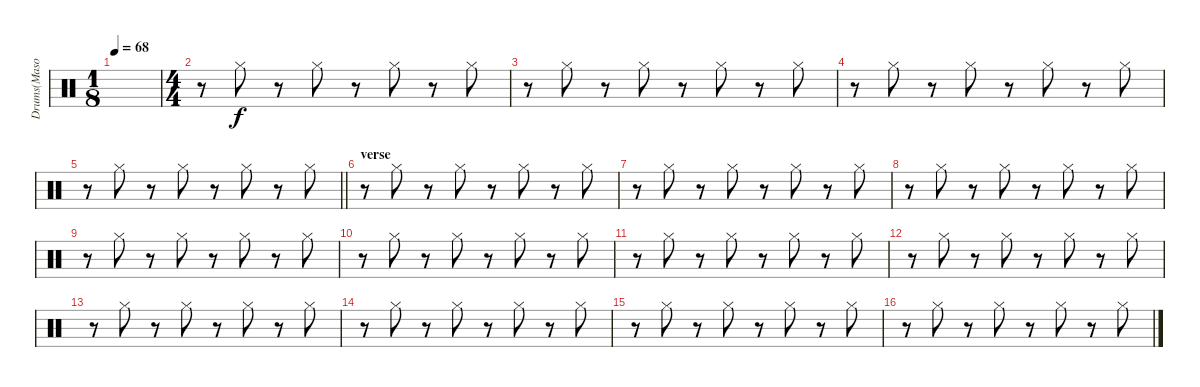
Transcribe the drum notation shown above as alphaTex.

\track ("Drums(Mason)" "Drums(Maso") {instrument percussion}
\staff {score}
\articulation defaults
\ts (1 8)
\tempo 68
\clef neutral
\ks c
|
\ts (4 4)
r.8 "Hi-Hat (closed)".8 r.8 "Hi-Hat (closed)".8 r.8 "Hi-Hat (closed)".8 r.8 "Hi-Hat (closed)".8 |
r.8 "Hi-Hat (closed)".8 r.8 "Hi-Hat (closed)".8 r.8 "Hi-Hat (closed)".8 r.8 "Hi-Hat (closed)".8 |
r.8 "Hi-Hat (closed)".8 r.8 "Hi-Hat (closed)".8 r.8 "Hi-Hat (closed)".8 r.8 "Hi-Hat (closed)".8 |
\barLineRight lightlight
r.8 "Hi-Hat (closed)".8 r.8 "Hi-Hat (closed)".8 r.8 "Hi-Hat (closed)".8 r.8 "Hi-Hat (closed)".8 |
\section ("" "verse")
r.8 "Hi-Hat (closed)".8 r.8 "Hi-Hat (closed)".8 r.8 "Hi-Hat (closed)".8 r.8 "Hi-Hat (closed)".8 |
r.8 "Hi-Hat (closed)".8 r.8 "Hi-Hat (closed)".8 r.8 "Hi-Hat (closed)".8 r.8 "Hi-Hat (closed)".8 |
r.8 "Hi-Hat (closed)".8 r.8 "Hi-Hat (closed)".8 r.8 "Hi-Hat (closed)".8 r.8 "Hi-Hat (closed)".8 |
r.8 "Hi-Hat (closed)".8 r.8 "Hi-Hat (closed)".8 r.8 "Hi-Hat (closed)".8 r.8 "Hi-Hat (closed)".8 |
r.8 "Hi-Hat (closed)".8 r.8 "Hi-Hat (closed)".8 r.8 "Hi-Hat (closed)".8 r.8 "Hi-Hat (closed)".8 |
r.8 "Hi-Hat (closed)".8 r.8 "Hi-Hat (closed)".8 r.8 "Hi-Hat (closed)".8 r.8 "Hi-Hat (closed)".8 |
r.8 "Hi-Hat (closed)".8 r.8 "Hi-Hat (closed)".8 r.8 "Hi-Hat (closed)".8 r.8 "Hi-Hat (closed)".8 |
r.8 "Hi-Hat (closed)".8 r.8 "Hi-Hat (closed)".8 r.8 "Hi-Hat (closed)".8 r.8 "Hi-Hat (closed)".8 |
r.8 "Hi-Hat (closed)".8 r.8 "Hi-Hat (closed)".8 r.8 "Hi-Hat (closed)".8 r.8 "Hi-Hat (closed)".8 |
r.8 "Hi-Hat (closed)".8 r.8 "Hi-Hat (closed)".8 r.8 "Hi-Hat (closed)".8 r.8 "Hi-Hat (closed)".8 |
r.8 "Hi-Hat (closed)".8 r.8 "Hi-Hat (closed)".8 r.8 "Hi-Hat (closed)".8 r.8 "Hi-Hat (closed)".8
